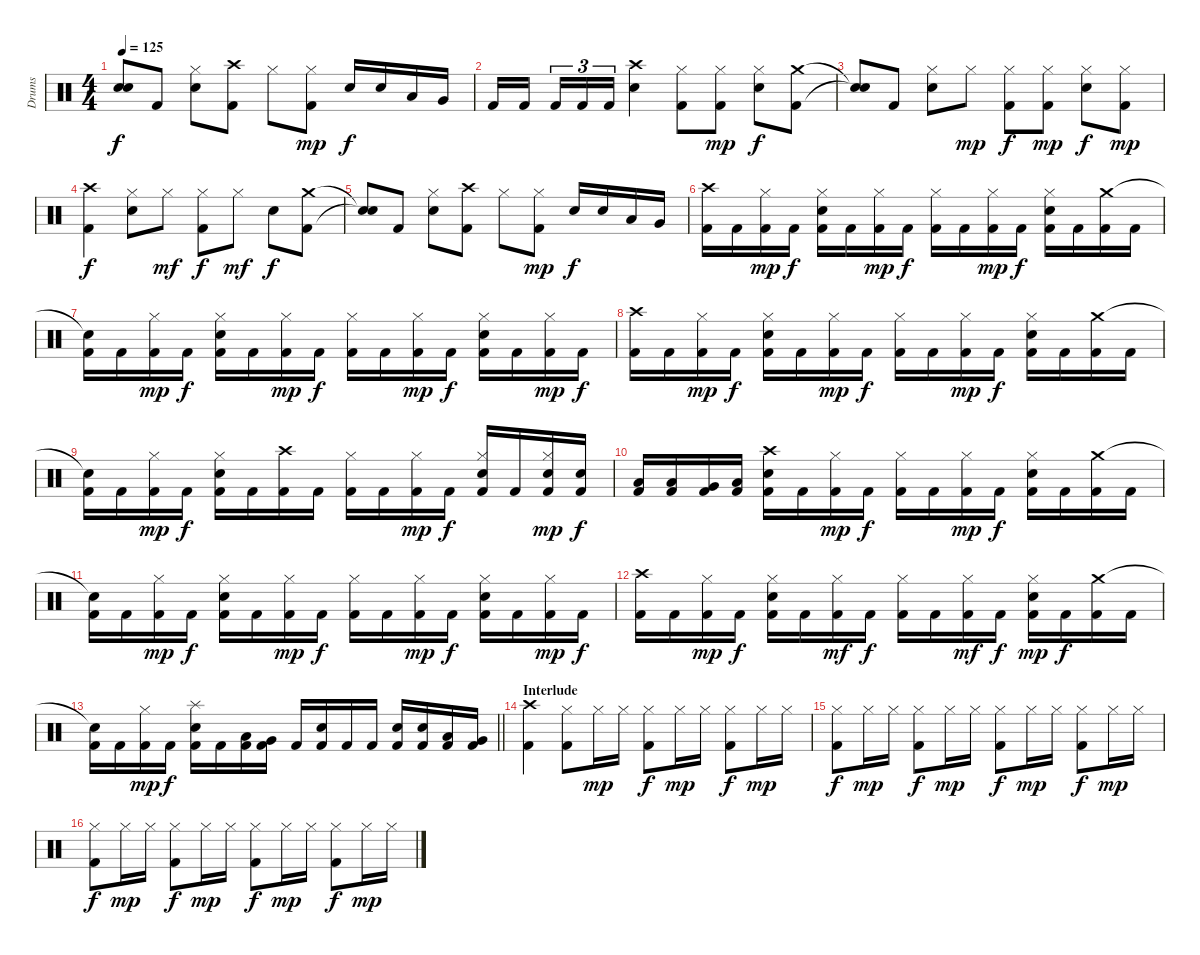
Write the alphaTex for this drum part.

\track ("Drums" "Drums") {instrument percussion}
\staff {score}
\articulation defaults
\ts (4 4)
\tempo 125
\clef neutral
\ks c
("Snare (hit)"{t} "Snare (hit)"{t}).8{dy f} "Kick (hit) 2".8 ("Hi-Hat (closed)" "Electric Snare (hit)").8 ("Kick (hit) 2" "Crash high (hit)").8 "Hi-Hat (closed)".8 ("Kick (hit) 2" "Hi-Hat (closed)").8{dy mp} "Electric Snare (hit)".16{dy f} "Electric Snare (hit)".16 "Low Tom (hit)".16 "Very Low Tom (hit)".16 |
"Kick (hit) 2".16 "Kick (hit) 2".16{beam splitsecondary} "Kick (hit) 2".16{tu (3 2)} "Kick (hit) 2".16{tu (3 2)} "Kick (hit) 2".16{tu (3 2)} ("Crash high (hit)" "Electric Snare (hit)").4 ("Kick (hit) 2" "Hi-Hat (closed)").8 ("Kick (hit) 2" "Hi-Hat (closed)").8{dy mp} ("Hi-Hat (closed)" "Electric Snare (hit)").8{dy f} ("Kick (hit) 2" "Crash medium (hit)").8 |
("Snare (hit)"{t} "Snare (hit)"{t}).8 "Kick (hit) 2".8 ("Hi-Hat (closed)" "Electric Snare (hit)").8 "Hi-Hat (closed)".8{dy mp} ("Kick (hit) 2" "Hi-Hat (closed)").8{dy f} ("Kick (hit) 2" "Hi-Hat (closed)").8{dy mp} ("Hi-Hat (closed)" "Electric Snare (hit)").8{dy f} ("Kick (hit) 2" "Hi-Hat (closed)").8{dy mp} |
("Kick (hit) 2" "Crash high (hit)").4{dy f} ("Hi-Hat (closed)" "Electric Snare (hit)").8 "Hi-Hat (closed)".8{dy mf} ("Kick (hit) 2" "Hi-Hat (closed)").8{dy f} "Hi-Hat (closed)".8{dy mf} "Electric Snare (hit)".8{dy f} ("Kick (hit) 2" "Crash medium (hit)").8 |
("Snare (hit)"{t} "Snare (hit)"{t}).8 "Kick (hit) 2".8 ("Hi-Hat (closed)" "Electric Snare (hit)").8 ("Kick (hit) 2" "Crash high (hit)").8 "Hi-Hat (closed)".8 ("Kick (hit) 2" "Hi-Hat (closed)").8{dy mp} "Electric Snare (hit)".16{dy f} "Electric Snare (hit)".16 "Low Tom (hit)".16 "Very Low Tom (hit)".16 |
("Kick (hit) 2" "Crash high (hit)").16 "Kick (hit) 2".16 ("Kick (hit) 2" "Hi-Hat (closed)").16{dy mp} "Kick (hit) 2".16{dy f} ("Kick (hit) 2" "Hi-Hat (closed)" "Electric Snare (hit)").16 "Kick (hit) 2".16 ("Kick (hit) 2" "Hi-Hat (closed)").16{dy mp} "Kick (hit) 2".16{dy f} ("Kick (hit) 2" "Hi-Hat (closed)").16 "Kick (hit) 2".16 ("Kick (hit) 2" "Hi-Hat (closed)").16{dy mp} "Kick (hit) 2".16{dy f} ("Kick (hit) 2" "Hi-Hat (closed)" "Electric Snare (hit)").16 "Kick (hit) 2".16 ("Kick (hit) 2" "Crash medium (hit)").16 "Kick (hit) 2".16 |
("Kick (hit) 2" "Snare (hit)"{t}).16 "Kick (hit) 2".16 ("Kick (hit) 2" "Hi-Hat (closed)").16{dy mp} "Kick (hit) 2".16{dy f} ("Kick (hit) 2" "Hi-Hat (closed)" "Electric Snare (hit)").16 "Kick (hit) 2".16 ("Kick (hit) 2" "Hi-Hat (closed)").16{dy mp} "Kick (hit) 2".16{dy f} ("Kick (hit) 2" "Hi-Hat (closed)").16 "Kick (hit) 2".16 ("Kick (hit) 2" "Hi-Hat (closed)").16{dy mp} "Kick (hit) 2".16{dy f} ("Kick (hit) 2" "Hi-Hat (closed)" "Electric Snare (hit)").16 "Kick (hit) 2".16 ("Kick (hit) 2" "Hi-Hat (closed)").16{dy mp} "Kick (hit) 2".16{dy f} |
("Kick (hit) 2" "Crash high (hit)").16 "Kick (hit) 2".16 ("Kick (hit) 2" "Hi-Hat (closed)").16{dy mp} "Kick (hit) 2".16{dy f} ("Kick (hit) 2" "Hi-Hat (closed)" "Electric Snare (hit)").16 "Kick (hit) 2".16 ("Kick (hit) 2" "Hi-Hat (closed)").16{dy mp} "Kick (hit) 2".16{dy f} ("Kick (hit) 2" "Hi-Hat (closed)").16 "Kick (hit) 2".16 ("Kick (hit) 2" "Hi-Hat (closed)").16{dy mp} "Kick (hit) 2".16{dy f} ("Kick (hit) 2" "Hi-Hat (closed)" "Electric Snare (hit)").16 "Kick (hit) 2".16 ("Kick (hit) 2" "Crash medium (hit)").16 "Kick (hit) 2".16 |
("Kick (hit) 2" "Snare (hit)"{t}).16 "Kick (hit) 2".16 ("Kick (hit) 2" "Hi-Hat (closed)").16{dy mp} "Kick (hit) 2".16{dy f} ("Kick (hit) 2" "Hi-Hat (closed)" "Electric Snare (hit)").16 "Kick (hit) 2".16 ("Kick (hit) 2" "Crash high (hit)").16 "Kick (hit) 2".16 ("Kick (hit) 2" "Hi-Hat (closed)").16 "Kick (hit) 2".16 ("Kick (hit) 2" "Hi-Hat (closed)").16{dy mp} "Kick (hit) 2".16{dy f} ("Kick (hit) 2" "Hi-Hat (closed)" "Electric Snare (hit)").16 "Kick (hit) 2".16 ("Kick (hit) 2" "Hi-Hat (closed)" "Electric Snare (hit)").16{dy mp} ("Kick (hit) 2" "Electric Snare (hit)").16{dy f} |
("Kick (hit) 2" "Low Tom (hit)").16 ("Kick (hit) 2" "Low Tom (hit)").16 ("Kick (hit) 2" "Very Low Tom (hit)").16 ("Kick (hit) 2" "Low Floor Tom (hit)").16 ("Kick (hit) 2" "Crash high (hit)" "Electric Snare (hit)").16 "Kick (hit) 2".16 ("Kick (hit) 2" "Hi-Hat (closed)").16{dy mp} "Kick (hit) 2".16{dy f} ("Kick (hit) 2" "Hi-Hat (closed)").16 "Kick (hit) 2".16 ("Kick (hit) 2" "Hi-Hat (closed)").16{dy mp} "Kick (hit) 2".16{dy f} ("Kick (hit) 2" "Hi-Hat (closed)" "Electric Snare (hit)").16 "Kick (hit) 2".16 ("Kick (hit) 2" "Crash medium (hit)").16 "Kick (hit) 2".16 |
("Kick (hit) 2" "Snare (hit)"{t}).16 "Kick (hit) 2".16 ("Kick (hit) 2" "Hi-Hat (closed)").16{dy mp} "Kick (hit) 2".16{dy f} ("Kick (hit) 2" "Hi-Hat (closed)" "Electric Snare (hit)").16 "Kick (hit) 2".16 ("Kick (hit) 2" "Hi-Hat (closed)").16{dy mp} "Kick (hit) 2".16{dy f} ("Kick (hit) 2" "Hi-Hat (closed)").16 "Kick (hit) 2".16 ("Kick (hit) 2" "Hi-Hat (closed)").16{dy mp} "Kick (hit) 2".16{dy f} ("Kick (hit) 2" "Hi-Hat (closed)" "Electric Snare (hit)").16 "Kick (hit) 2".16 ("Kick (hit) 2" "Hi-Hat (closed)").16{dy mp} "Kick (hit) 2".16{dy f} |
("Kick (hit) 2" "Crash high (hit)").16 "Kick (hit) 2".16 ("Kick (hit) 2" "Hi-Hat (closed)").16{dy mp} "Kick (hit) 2".16{dy f} ("Kick (hit) 2" "Hi-Hat (closed)" "Electric Snare (hit)").16 "Kick (hit) 2".16 ("Kick (hit) 2" "Hi-Hat (closed)").16{dy mf} "Kick (hit) 2".16{dy f} ("Kick (hit) 2" "Hi-Hat (closed)").16 "Kick (hit) 2".16 ("Kick (hit) 2" "Hi-Hat (closed)").16{dy mf} "Kick (hit) 2".16{dy f} ("Kick (hit) 2" "Hi-Hat (closed)" "Electric Snare (hit)").16{dy mp} "Kick (hit) 2".16{dy f} ("Kick (hit) 2" "Crash medium (hit)").16 "Kick (hit) 2".16 |
\barLineRight lightlight
("Kick (hit) 2" "Snare (hit)"{t}).16 "Kick (hit) 2".16 ("Kick (hit) 2" "Hi-Hat (closed)").16{dy mp} "Kick (hit) 2".16{dy f} ("Kick (hit) 2" "Splash (hit)" "Electric Snare (hit)").16 "Kick (hit) 2".16 ("Kick (hit) 2" "Low Tom (hit)").16 ("Kick (hit) 2" "Very Low Tom (hit)").16 "Kick (hit) 2".16 ("Kick (hit) 2" "Electric Snare (hit)").16 "Kick (hit) 2".16 "Kick (hit) 2".16 ("Kick (hit) 2" "Electric Snare (hit)").16 ("Kick (hit) 2" "Electric Snare (hit)").16 ("Kick (hit) 2" "Low Tom (hit)").16 ("Kick (hit) 2" "Very Low Tom (hit)").16 |
\section ("" "Interlude")
("Kick (hit) 2" "Crash high (hit)").4 ("Kick (hit) 2" "Hi-Hat (closed)").8 "Hi-Hat (closed)".16{dy mp} "Hi-Hat (closed)".16 ("Kick (hit) 2" "Hi-Hat (closed)").8{dy f} "Hi-Hat (closed)".16{dy mp} "Hi-Hat (closed)".16 ("Kick (hit) 2" "Hi-Hat (closed)").8{dy f} "Hi-Hat (closed)".16{dy mp} "Hi-Hat (closed)".16 |
("Kick (hit) 2" "Hi-Hat (closed)").8{dy f} "Hi-Hat (closed)".16{dy mp} "Hi-Hat (closed)".16 ("Kick (hit) 2" "Hi-Hat (closed)").8{dy f} "Hi-Hat (closed)".16{dy mp} "Hi-Hat (closed)".16 ("Kick (hit) 2" "Hi-Hat (closed)").8{dy f} "Hi-Hat (closed)".16{dy mp} "Hi-Hat (closed)".16 ("Kick (hit) 2" "Hi-Hat (closed)").8{dy f} "Hi-Hat (closed)".16{dy mp} "Hi-Hat (closed)".16 |
("Kick (hit) 2" "Hi-Hat (closed)").8{dy f} "Hi-Hat (closed)".16{dy mp} "Hi-Hat (closed)".16 ("Kick (hit) 2" "Hi-Hat (closed)").8{dy f} "Hi-Hat (closed)".16{dy mp} "Hi-Hat (closed)".16 ("Kick (hit) 2" "Hi-Hat (closed)").8{dy f} "Hi-Hat (closed)".16{dy mp} "Hi-Hat (closed)".16 ("Kick (hit) 2" "Hi-Hat (closed)").8{dy f} "Hi-Hat (closed)".16{dy mp} "Hi-Hat (closed)".16
